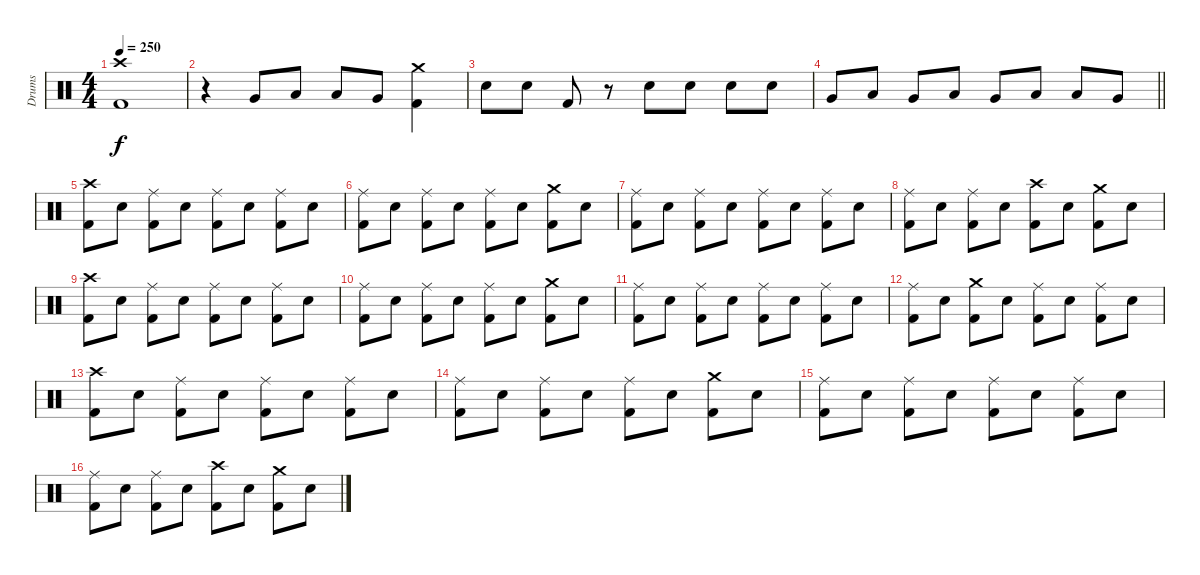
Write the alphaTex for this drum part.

\track ("Drums" "Drums") {instrument percussion}
\staff {score}
\articulation defaults
\ts (4 4)
\tempo 250
\clef neutral
\ks c
("Crash high (hit)" "Kick (hit) 2").1{dy f} |
r.4 "Very Low Tom (hit)".8 "Low Floor Tom (hit)".8 "Low Tom (hit)".8 "Very Low Tom (hit)".8 ("Crash medium (hit)" "Kick (hit) 2").4 |
"Electric Snare (hit)".8 "Electric Snare (hit)".8 "Kick (hit) 2".8 r.8 "Electric Snare (hit)".8 "Electric Snare (hit)".8 "Electric Snare (hit)".8 "Electric Snare (hit)".8 |
\barLineRight lightlight "Very Low Tom (hit)".8 "Low Tom (hit)".8 "Very Low Tom (hit)".8 "Low Floor Tom (hit)".8 "Very Low Tom (hit)".8 "Low Floor Tom (hit)".8 "Low Tom (hit)".8 "Very Low Tom (hit)".8
|
("Crash high (hit)" "Kick (hit) 2").8 "Electric Snare (hit)".8 ("Ride (middle)" "Kick (hit) 2").8 "Electric Snare (hit)".8 ("Ride (middle)" "Kick (hit) 2").8 "Electric Snare (hit)".8 ("Ride (middle)" "Kick (hit) 2").8 "Electric Snare (hit)".8 |
("Ride (middle)" "Kick (hit) 2").8 "Electric Snare (hit)".8 ("Ride (middle)" "Kick (hit) 2").8 "Electric Snare (hit)".8 ("Ride (middle)" "Kick (hit) 2").8 "Electric Snare (hit)".8 ("Crash medium (hit)" "Kick (hit) 2").8 "Electric Snare (hit)".8 |
("Ride (middle)" "Kick (hit) 2").8 "Electric Snare (hit)".8 ("Ride (middle)" "Kick (hit) 2").8 "Electric Snare (hit)".8 ("Ride (middle)" "Kick (hit) 2").8 "Electric Snare (hit)".8 ("Ride (middle)" "Kick (hit) 2").8 "Electric Snare (hit)".8 |
("Ride (middle)" "Kick (hit) 2").8 "Electric Snare (hit)".8 ("Ride (middle)" "Kick (hit) 2").8 "Electric Snare (hit)".8 ("Crash high (hit)" "Kick (hit) 2").8 "Electric Snare (hit)".8 ("Crash medium (hit)" "Kick (hit) 2").8 "Electric Snare (hit)".8 |
("Crash high (hit)" "Kick (hit) 2").8 "Electric Snare (hit)".8 ("Ride (middle)" "Kick (hit) 2").8 "Electric Snare (hit)".8 ("Ride (middle)" "Kick (hit) 2").8 "Electric Snare (hit)".8 ("Ride (middle)" "Kick (hit) 2").8 "Electric Snare (hit)".8 |
("Ride (middle)" "Kick (hit) 2").8 "Electric Snare (hit)".8 ("Ride (middle)" "Kick (hit) 2").8 "Electric Snare (hit)".8 ("Ride (middle)" "Kick (hit) 2").8 "Electric Snare (hit)".8 ("Crash medium (hit)" "Kick (hit) 2").8 "Electric Snare (hit)".8 |
("Ride (middle)" "Kick (hit) 2").8 "Electric Snare (hit)".8 ("Ride (middle)" "Kick (hit) 2").8 "Electric Snare (hit)".8 ("Ride (middle)" "Kick (hit) 2").8 "Electric Snare (hit)".8 ("Ride (middle)" "Kick (hit) 2").8 "Electric Snare (hit)".8 |
("Ride (middle)" "Kick (hit) 2").8 "Electric Snare (hit)".8 ("Crash medium (hit)" "Kick (hit) 2").8 "Electric Snare (hit)".8 ("Ride (middle)" "Kick (hit) 2").8 "Electric Snare (hit)".8 ("Ride (middle)" "Kick (hit) 2").8 "Electric Snare (hit)".8 |
("Crash high (hit)" "Kick (hit) 2").8 "Electric Snare (hit)".8 ("Ride (middle)" "Kick (hit) 2").8 "Electric Snare (hit)".8 ("Ride (middle)" "Kick (hit) 2").8 "Electric Snare (hit)".8 ("Ride (middle)" "Kick (hit) 2").8 "Electric Snare (hit)".8 |
("Ride (middle)" "Kick (hit) 2").8 "Electric Snare (hit)".8 ("Ride (middle)" "Kick (hit) 2").8 "Electric Snare (hit)".8 ("Ride (middle)" "Kick (hit) 2").8 "Electric Snare (hit)".8 ("Crash medium (hit)" "Kick (hit) 2").8 "Electric Snare (hit)".8 |
("Ride (middle)" "Kick (hit) 2").8 "Electric Snare (hit)".8 ("Ride (middle)" "Kick (hit) 2").8 "Electric Snare (hit)".8 ("Ride (middle)" "Kick (hit) 2").8 "Electric Snare (hit)".8 ("Ride (middle)" "Kick (hit) 2").8 "Electric Snare (hit)".8 |
("Ride (middle)" "Kick (hit) 2").8 "Electric Snare (hit)".8 ("Ride (middle)" "Kick (hit) 2").8 "Electric Snare (hit)".8 ("Crash high (hit)" "Kick (hit) 2").8 "Electric Snare (hit)".8 ("Crash medium (hit)" "Kick (hit) 2").8 "Electric Snare (hit)".8
